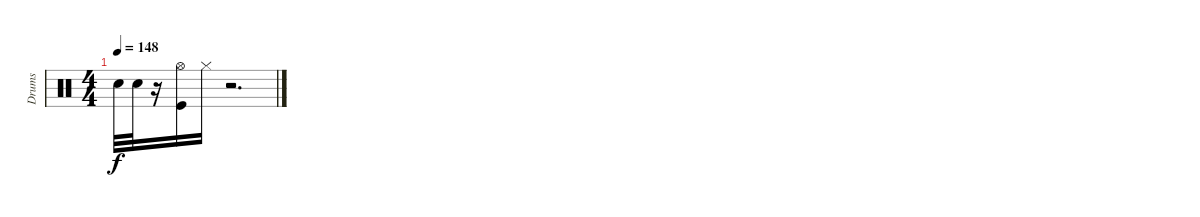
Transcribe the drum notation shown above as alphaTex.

\track ("Drums" "Drums") {instrument percussion}
\staff {score}
\articulation defaults
\ts (4 4)
\tempo 148
\clef neutral
\ks c "Snare (hit) 2".32{dy f} "Snare (hit) 2".32
r.16 ("Hi-Hat (open)" "Kick (hit)").16 "Hi-Hat (closed)".16 r.2{d}
